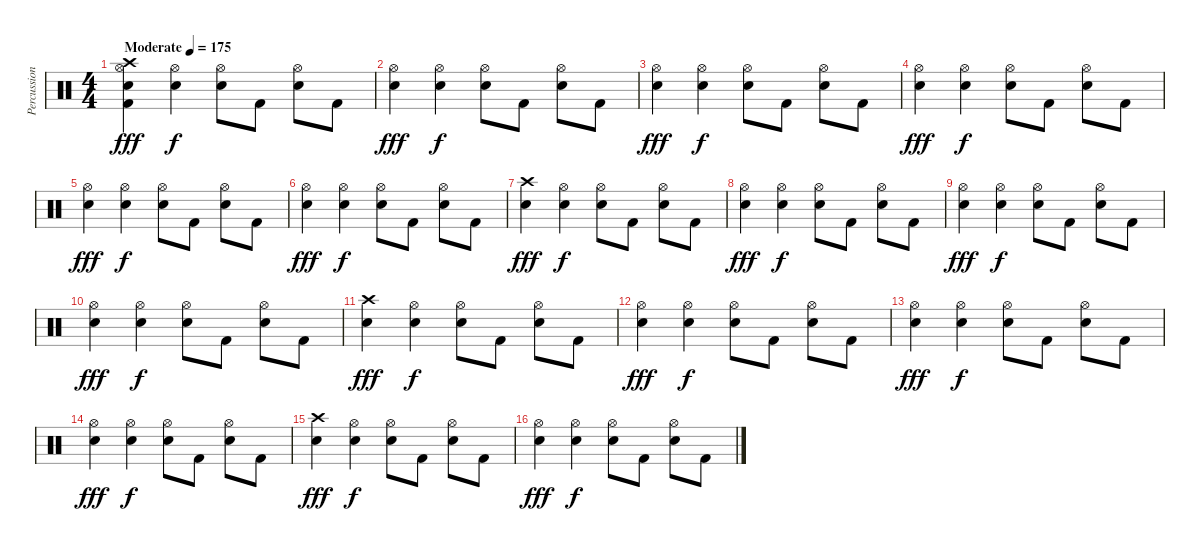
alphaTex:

\track ("Percussion" "Percussion") {instrument percussion}
\staff {score}
\articulation defaults
\ts (4 4)
\tempo (175 "Moderate")
\clef neutral
\ks c
("Hi-Hat (open)" "Crash high (hit)" "Snare (hit) 2" "Kick (hit) 2").4{dy fff} ("Hi-Hat (open)" "Snare (hit) 2").4{dy f} ("Hi-Hat (open)" "Snare (hit) 2").8 "Kick (hit) 2".8 ("Hi-Hat (open)" "Snare (hit) 2").8 "Kick (hit) 2".8 |
("Hi-Hat (open)" "Snare (hit) 2").4{dy fff} ("Hi-Hat (open)" "Snare (hit) 2").4{dy f} ("Hi-Hat (open)" "Snare (hit) 2").8 "Kick (hit) 2".8 ("Hi-Hat (open)" "Snare (hit) 2").8 "Kick (hit) 2".8 |
("Hi-Hat (open)" "Snare (hit) 2").4{dy fff} ("Hi-Hat (open)" "Snare (hit) 2").4{dy f} ("Hi-Hat (open)" "Snare (hit) 2").8 "Kick (hit) 2".8 ("Hi-Hat (open)" "Snare (hit) 2").8 "Kick (hit) 2".8 |
("Hi-Hat (open)" "Snare (hit) 2").4{dy fff} ("Hi-Hat (open)" "Snare (hit) 2").4{dy f} ("Hi-Hat (open)" "Snare (hit) 2").8 "Kick (hit) 2".8 ("Hi-Hat (open)" "Snare (hit) 2").8 "Kick (hit) 2".8 |
("Hi-Hat (open)" "Snare (hit) 2").4{dy fff} ("Hi-Hat (open)" "Snare (hit) 2").4{dy f} ("Hi-Hat (open)" "Snare (hit) 2").8 "Kick (hit) 2".8 ("Hi-Hat (open)" "Snare (hit) 2").8 "Kick (hit) 2".8 |
("Hi-Hat (open)" "Snare (hit) 2").4{dy fff} ("Hi-Hat (open)" "Snare (hit) 2").4{dy f} ("Hi-Hat (open)" "Snare (hit) 2").8 "Kick (hit) 2".8 ("Hi-Hat (open)" "Snare (hit) 2").8 "Kick (hit) 2".8 |
("Crash high (hit)" "Snare (hit) 2").4{dy fff} ("Hi-Hat (open)" "Snare (hit) 2").4{dy f} ("Hi-Hat (open)" "Snare (hit) 2").8 "Kick (hit) 2".8 ("Hi-Hat (open)" "Snare (hit) 2").8 "Kick (hit) 2".8 |
("Hi-Hat (open)" "Snare (hit) 2").4{dy fff} ("Hi-Hat (open)" "Snare (hit) 2").4{dy f} ("Hi-Hat (open)" "Snare (hit) 2").8 "Kick (hit) 2".8 ("Hi-Hat (open)" "Snare (hit) 2").8 "Kick (hit) 2".8 |
("Hi-Hat (open)" "Snare (hit) 2").4{dy fff} ("Hi-Hat (open)" "Snare (hit) 2").4{dy f} ("Hi-Hat (open)" "Snare (hit) 2").8 "Kick (hit) 2".8 ("Hi-Hat (open)" "Snare (hit) 2").8 "Kick (hit) 2".8 |
("Hi-Hat (open)" "Snare (hit) 2").4{dy fff} ("Hi-Hat (open)" "Snare (hit) 2").4{dy f} ("Hi-Hat (open)" "Snare (hit) 2").8 "Kick (hit) 2".8 ("Hi-Hat (open)" "Snare (hit) 2").8 "Kick (hit) 2".8 |
("Crash high (hit)" "Snare (hit) 2").4{dy fff} ("Hi-Hat (open)" "Snare (hit) 2").4{dy f} ("Hi-Hat (open)" "Snare (hit) 2").8 "Kick (hit) 2".8 ("Hi-Hat (open)" "Snare (hit) 2").8 "Kick (hit) 2".8 |
("Hi-Hat (open)" "Snare (hit) 2").4{dy fff} ("Hi-Hat (open)" "Snare (hit) 2").4{dy f} ("Hi-Hat (open)" "Snare (hit) 2").8 "Kick (hit) 2".8 ("Hi-Hat (open)" "Snare (hit) 2").8 "Kick (hit) 2".8 |
("Hi-Hat (open)" "Snare (hit) 2").4{dy fff} ("Hi-Hat (open)" "Snare (hit) 2").4{dy f} ("Hi-Hat (open)" "Snare (hit) 2").8 "Kick (hit) 2".8 ("Hi-Hat (open)" "Snare (hit) 2").8 "Kick (hit) 2".8 |
("Hi-Hat (open)" "Snare (hit) 2").4{dy fff} ("Hi-Hat (open)" "Snare (hit) 2").4{dy f} ("Hi-Hat (open)" "Snare (hit) 2").8 "Kick (hit) 2".8 ("Hi-Hat (open)" "Snare (hit) 2").8 "Kick (hit) 2".8 |
("Crash high (hit)" "Snare (hit) 2").4{dy fff} ("Hi-Hat (open)" "Snare (hit) 2").4{dy f} ("Hi-Hat (open)" "Snare (hit) 2").8 "Kick (hit) 2".8 ("Hi-Hat (open)" "Snare (hit) 2").8 "Kick (hit) 2".8 |
("Hi-Hat (open)" "Snare (hit) 2").4{dy fff} ("Hi-Hat (open)" "Snare (hit) 2").4{dy f} ("Hi-Hat (open)" "Snare (hit) 2").8 "Kick (hit) 2".8 ("Hi-Hat (open)" "Snare (hit) 2").8 "Kick (hit) 2".8
